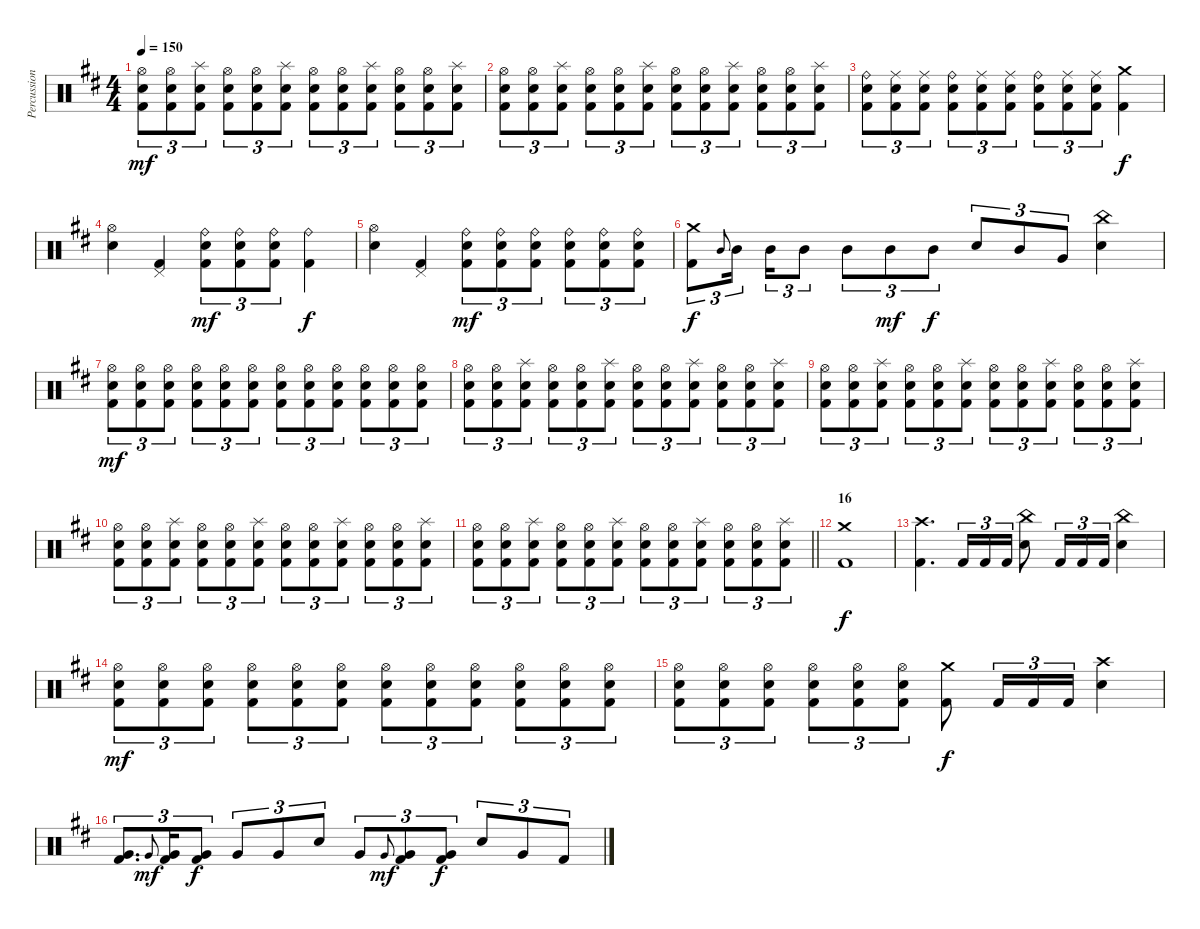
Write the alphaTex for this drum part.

\track ("Percussion" "Percussion") {instrument percussion}
\staff {score}
\articulation defaults
\ts (4 4)
\tempo 150
\clef neutral
\ks bminor
("Hi-Hat (open)" "Snare (hit) 2" "Kick (hit) 2").8{tu (3 2) dy mf} ("Hi-Hat (open)" "Snare (hit) 2" "Kick (hit) 2").8{tu (3 2)} ("Splash (hit)" "Snare (hit) 2" "Kick (hit) 2").8{tu (3 2)} ("Hi-Hat (open)" "Snare (hit) 2" "Kick (hit) 2").8{tu (3 2)} ("Hi-Hat (open)" "Snare (hit) 2" "Kick (hit) 2").8{tu (3 2)} ("Splash (hit)" "Snare (hit) 2" "Kick (hit) 2").8{tu (3 2)} ("Hi-Hat (open)" "Snare (hit) 2" "Kick (hit) 2").8{tu (3 2)} ("Hi-Hat (open)" "Snare (hit) 2" "Kick (hit) 2").8{tu (3 2)} ("Splash (hit)" "Snare (hit) 2" "Kick (hit) 2").8{tu (3 2)} ("Hi-Hat (open)" "Snare (hit) 2" "Kick (hit) 2").8{tu (3 2)} ("Hi-Hat (open)" "Snare (hit) 2" "Kick (hit) 2").8{tu (3 2)} ("Splash (hit)" "Snare (hit) 2" "Kick (hit) 2").8{tu (3 2)} |
("Hi-Hat (open)" "Snare (hit) 2" "Kick (hit) 2").8{tu (3 2)} ("Hi-Hat (open)" "Snare (hit) 2" "Kick (hit) 2").8{tu (3 2)} ("Splash (hit)" "Snare (hit) 2" "Kick (hit) 2").8{tu (3 2)} ("Hi-Hat (open)" "Snare (hit) 2" "Kick (hit) 2").8{tu (3 2)} ("Hi-Hat (open)" "Snare (hit) 2" "Kick (hit) 2").8{tu (3 2)} ("Splash (hit)" "Snare (hit) 2" "Kick (hit) 2").8{tu (3 2)} ("Hi-Hat (open)" "Snare (hit) 2" "Kick (hit) 2").8{tu (3 2)} ("Hi-Hat (open)" "Snare (hit) 2" "Kick (hit) 2").8{tu (3 2)} ("Splash (hit)" "Snare (hit) 2" "Kick (hit) 2").8{tu (3 2)} ("Hi-Hat (open)" "Snare (hit) 2" "Kick (hit) 2").8{tu (3 2)} ("Hi-Hat (open)" "Snare (hit) 2" "Kick (hit) 2").8{tu (3 2)} ("Splash (hit)" "Snare (hit) 2" "Kick (hit) 2").8{tu (3 2)} |
("Ride (bell)" "Snare (hit) 2" "Kick (hit) 2").8{tu (3 2)} ("Ride (middle)" "Snare (hit) 2" "Kick (hit) 2").8{tu (3 2)} ("Ride (middle)" "Snare (hit) 2" "Kick (hit) 2").8{tu (3 2)} ("Ride (bell)" "Snare (hit) 2" "Kick (hit) 2").8{tu (3 2)} ("Ride (middle)" "Snare (hit) 2" "Kick (hit) 2").8{tu (3 2)} ("Ride (middle)" "Snare (hit) 2" "Kick (hit) 2").8{tu (3 2)} ("Ride (bell)" "Snare (hit) 2" "Kick (hit) 2").8{tu (3 2)} ("Ride (middle)" "Snare (hit) 2" "Kick (hit) 2").8{tu (3 2)} ("Ride (middle)" "Snare (hit) 2" "Kick (hit) 2").8{tu (3 2)} ("Crash medium (hit)" "Kick (hit) 2").4{dy f} |
("Hi-Hat (open)" "Snare (hit) 2").4 ("Pedal Hi-Hat (hit)" "Kick (hit) 2").4 ("Ride (bell)" "Snare (hit) 2" "Kick (hit) 2").8{tu (3 2) dy mf} ("Ride (bell)" "Snare (hit) 2" "Kick (hit) 2").8{tu (3 2)} ("Ride (bell)" "Snare (hit) 2" "Kick (hit) 2").8{tu (3 2)} ("Ride (bell)" "Kick (hit) 2").4{dy f} |
("Hi-Hat (open)" "Snare (hit) 2").4 ("Pedal Hi-Hat (hit)" "Kick (hit) 2").4 ("Ride (bell)" "Snare (hit) 2" "Kick (hit) 2").8{tu (3 2) dy mf} ("Ride (bell)" "Snare (hit) 2" "Kick (hit) 2").8{tu (3 2)} ("Ride (bell)" "Snare (hit) 2" "Kick (hit) 2").8{tu (3 2)} ("Ride (bell)" "Snare (hit) 2" "Kick (hit) 2").8{tu (3 2)} ("Ride (bell)" "Snare (hit) 2" "Kick (hit) 2").8{tu (3 2)} ("Ride (bell)" "Snare (hit) 2" "Kick (hit) 2").8{tu (3 2)} |
("Crash medium (hit)" "Kick (hit) 2").8{tu (3 2) dy f} "Mid Tom (hit)".8{gr onbeat} "Mid Tom (hit)".16{tu (3 2) beam splitsecondary} "Mid Tom (hit)".16{tu (3 2)} "Mid Tom (hit)".8{tu (3 2)} "Mid Tom (hit)".8{tu (3 2)} "Mid Tom (hit)".8{tu (3 2) dy mf} "Mid Tom (hit)".8{tu (3 2) dy f} "Snare (hit) 2".8{tu (3 2)} "Mid Tom (hit)".8{tu (3 2)} "Very Low Tom (hit)".8{tu (3 2)} ("China (hit)" "Snare (hit) 2").4 |
("Hi-Hat (open)" "Snare (hit) 2" "Kick (hit) 2").8{tu (3 2) dy mf} ("Hi-Hat (open)" "Snare (hit) 2" "Kick (hit) 2").8{tu (3 2)} ("Hi-Hat (open)" "Snare (hit) 2" "Kick (hit) 2").8{tu (3 2)} ("Hi-Hat (open)" "Snare (hit) 2" "Kick (hit) 2").8{tu (3 2)} ("Hi-Hat (open)" "Snare (hit) 2" "Kick (hit) 2").8{tu (3 2)} ("Hi-Hat (open)" "Snare (hit) 2" "Kick (hit) 2").8{tu (3 2)} ("Hi-Hat (open)" "Snare (hit) 2" "Kick (hit) 2").8{tu (3 2)} ("Hi-Hat (open)" "Snare (hit) 2" "Kick (hit) 2").8{tu (3 2)} ("Hi-Hat (open)" "Snare (hit) 2" "Kick (hit) 2").8{tu (3 2)} ("Hi-Hat (open)" "Snare (hit) 2" "Kick (hit) 2").8{tu (3 2)} ("Hi-Hat (open)" "Snare (hit) 2" "Kick (hit) 2").8{tu (3 2)} ("Hi-Hat (open)" "Snare (hit) 2" "Kick (hit) 2").8{tu (3 2)} |
("Hi-Hat (open)" "Snare (hit) 2" "Kick (hit) 2").8{tu (3 2)} ("Hi-Hat (open)" "Snare (hit) 2" "Kick (hit) 2").8{tu (3 2)} ("Splash (hit)" "Snare (hit) 2" "Kick (hit) 2").8{tu (3 2)} ("Hi-Hat (open)" "Snare (hit) 2" "Kick (hit) 2").8{tu (3 2)} ("Hi-Hat (open)" "Snare (hit) 2" "Kick (hit) 2").8{tu (3 2)} ("Splash (hit)" "Snare (hit) 2" "Kick (hit) 2").8{tu (3 2)} ("Hi-Hat (open)" "Snare (hit) 2" "Kick (hit) 2").8{tu (3 2)} ("Hi-Hat (open)" "Snare (hit) 2" "Kick (hit) 2").8{tu (3 2)} ("Splash (hit)" "Snare (hit) 2" "Kick (hit) 2").8{tu (3 2)} ("Hi-Hat (open)" "Snare (hit) 2" "Kick (hit) 2").8{tu (3 2)} ("Hi-Hat (open)" "Snare (hit) 2" "Kick (hit) 2").8{tu (3 2)} ("Splash (hit)" "Snare (hit) 2" "Kick (hit) 2").8{tu (3 2)} |
("Hi-Hat (open)" "Snare (hit) 2" "Kick (hit) 2").8{tu (3 2)} ("Hi-Hat (open)" "Snare (hit) 2" "Kick (hit) 2").8{tu (3 2)} ("Splash (hit)" "Snare (hit) 2" "Kick (hit) 2").8{tu (3 2)} ("Hi-Hat (open)" "Snare (hit) 2" "Kick (hit) 2").8{tu (3 2)} ("Hi-Hat (open)" "Snare (hit) 2" "Kick (hit) 2").8{tu (3 2)} ("Splash (hit)" "Snare (hit) 2" "Kick (hit) 2").8{tu (3 2)} ("Hi-Hat (open)" "Snare (hit) 2" "Kick (hit) 2").8{tu (3 2)} ("Hi-Hat (open)" "Snare (hit) 2" "Kick (hit) 2").8{tu (3 2)} ("Splash (hit)" "Snare (hit) 2" "Kick (hit) 2").8{tu (3 2)} ("Hi-Hat (open)" "Snare (hit) 2" "Kick (hit) 2").8{tu (3 2)} ("Hi-Hat (open)" "Snare (hit) 2" "Kick (hit) 2").8{tu (3 2)} ("Splash (hit)" "Snare (hit) 2" "Kick (hit) 2").8{tu (3 2)} |
("Hi-Hat (open)" "Snare (hit) 2" "Kick (hit) 2").8{tu (3 2)} ("Hi-Hat (open)" "Snare (hit) 2" "Kick (hit) 2").8{tu (3 2)} ("Splash (hit)" "Snare (hit) 2" "Kick (hit) 2").8{tu (3 2)} ("Hi-Hat (open)" "Snare (hit) 2" "Kick (hit) 2").8{tu (3 2)} ("Hi-Hat (open)" "Snare (hit) 2" "Kick (hit) 2").8{tu (3 2)} ("Splash (hit)" "Snare (hit) 2" "Kick (hit) 2").8{tu (3 2)} ("Hi-Hat (open)" "Snare (hit) 2" "Kick (hit) 2").8{tu (3 2)} ("Hi-Hat (open)" "Snare (hit) 2" "Kick (hit) 2").8{tu (3 2)} ("Splash (hit)" "Snare (hit) 2" "Kick (hit) 2").8{tu (3 2)} ("Hi-Hat (open)" "Snare (hit) 2" "Kick (hit) 2").8{tu (3 2)} ("Hi-Hat (open)" "Snare (hit) 2" "Kick (hit) 2").8{tu (3 2)} ("Splash (hit)" "Snare (hit) 2" "Kick (hit) 2").8{tu (3 2)} |
\barLineRight lightlight
("Hi-Hat (open)" "Snare (hit) 2" "Kick (hit) 2").8{tu (3 2)} ("Hi-Hat (open)" "Snare (hit) 2" "Kick (hit) 2").8{tu (3 2)} ("Splash (hit)" "Snare (hit) 2" "Kick (hit) 2").8{tu (3 2)} ("Hi-Hat (open)" "Snare (hit) 2" "Kick (hit) 2").8{tu (3 2)} ("Hi-Hat (open)" "Snare (hit) 2" "Kick (hit) 2").8{tu (3 2)} ("Splash (hit)" "Snare (hit) 2" "Kick (hit) 2").8{tu (3 2)} ("Hi-Hat (open)" "Snare (hit) 2" "Kick (hit) 2").8{tu (3 2)} ("Hi-Hat (open)" "Snare (hit) 2" "Kick (hit) 2").8{tu (3 2)} ("Splash (hit)" "Snare (hit) 2" "Kick (hit) 2").8{tu (3 2)} ("Hi-Hat (open)" "Snare (hit) 2" "Kick (hit) 2").8{tu (3 2)} ("Hi-Hat (open)" "Snare (hit) 2" "Kick (hit) 2").8{tu (3 2)} ("Splash (hit)" "Snare (hit) 2" "Kick (hit) 2").8{tu (3 2)} |
\section ("" "16")
("Crash medium (hit)" "Kick (hit) 2").1{dy f} |
("Crash high (hit)" "Kick (hit) 2").4{d} "Kick (hit) 2".16{tu (3 2)} "Kick (hit) 2".16{tu (3 2)} "Kick (hit) 2".16{tu (3 2)} ("China (hit)" "Snare (hit) 2").8 "Kick (hit) 2".16{tu (3 2)} "Kick (hit) 2".16{tu (3 2)} "Kick (hit) 2".16{tu (3 2)} ("China (hit)" "Snare (hit) 2").4 |
("Hi-Hat (open)" "Snare (hit) 2" "Kick (hit) 2").8{tu (3 2) dy mf} ("Hi-Hat (open)" "Snare (hit) 2" "Kick (hit) 2").8{tu (3 2)} ("Hi-Hat (open)" "Snare (hit) 2" "Kick (hit) 2").8{tu (3 2)} ("Hi-Hat (open)" "Snare (hit) 2" "Kick (hit) 2").8{tu (3 2)} ("Hi-Hat (open)" "Snare (hit) 2" "Kick (hit) 2").8{tu (3 2)} ("Hi-Hat (open)" "Snare (hit) 2" "Kick (hit) 2").8{tu (3 2)} ("Hi-Hat (open)" "Snare (hit) 2" "Kick (hit) 2").8{tu (3 2)} ("Hi-Hat (open)" "Snare (hit) 2" "Kick (hit) 2").8{tu (3 2)} ("Hi-Hat (open)" "Snare (hit) 2" "Kick (hit) 2").8{tu (3 2)} ("Hi-Hat (open)" "Snare (hit) 2" "Kick (hit) 2").8{tu (3 2)} ("Hi-Hat (open)" "Snare (hit) 2" "Kick (hit) 2").8{tu (3 2)} ("Hi-Hat (open)" "Snare (hit) 2" "Kick (hit) 2").8{tu (3 2)} |
("Hi-Hat (open)" "Snare (hit) 2" "Kick (hit) 2").8{tu (3 2)} ("Hi-Hat (open)" "Snare (hit) 2" "Kick (hit) 2").8{tu (3 2)} ("Hi-Hat (open)" "Snare (hit) 2" "Kick (hit) 2").8{tu (3 2)} ("Hi-Hat (open)" "Snare (hit) 2" "Kick (hit) 2").8{tu (3 2)} ("Hi-Hat (open)" "Snare (hit) 2" "Kick (hit) 2").8{tu (3 2)} ("Hi-Hat (open)" "Snare (hit) 2" "Kick (hit) 2").8{tu (3 2)} ("Crash medium (hit)" "Kick (hit) 2").8{dy f} "Kick (hit) 2".16{tu (3 2)} "Kick (hit) 2".16{tu (3 2)} "Kick (hit) 2".16{tu (3 2)} ("Crash high (hit)" "Snare (hit) 2").4 |
("Very Low Tom (hit)" "Kick (hit) 2").8{d tu (3 2)} "Very Low Tom (hit)".8{gr onbeat dy mf} ("Very Low Tom (hit)" "Kick (hit) 2").16{tu (3 2)} ("Very Low Tom (hit)" "Kick (hit) 2").8{tu (3 2) dy f} "Very Low Tom (hit)".8{tu (3 2)} "Very Low Tom (hit)".8{tu (3 2)} "Snare (hit) 2".8{tu (3 2)} "Very Low Tom (hit)".8{tu (3 2)} "Very Low Tom (hit)".8{gr onbeat dy mf} ("Very Low Tom (hit)" "Kick (hit) 2").8{tu (3 2)} ("Very Low Tom (hit)" "Kick (hit) 2").8{tu (3 2) dy f} "Snare (hit) 2".8{tu (3 2)} "Very Low Tom (hit)".8{tu (3 2)} "Kick (hit) 2".8{tu (3 2)}
